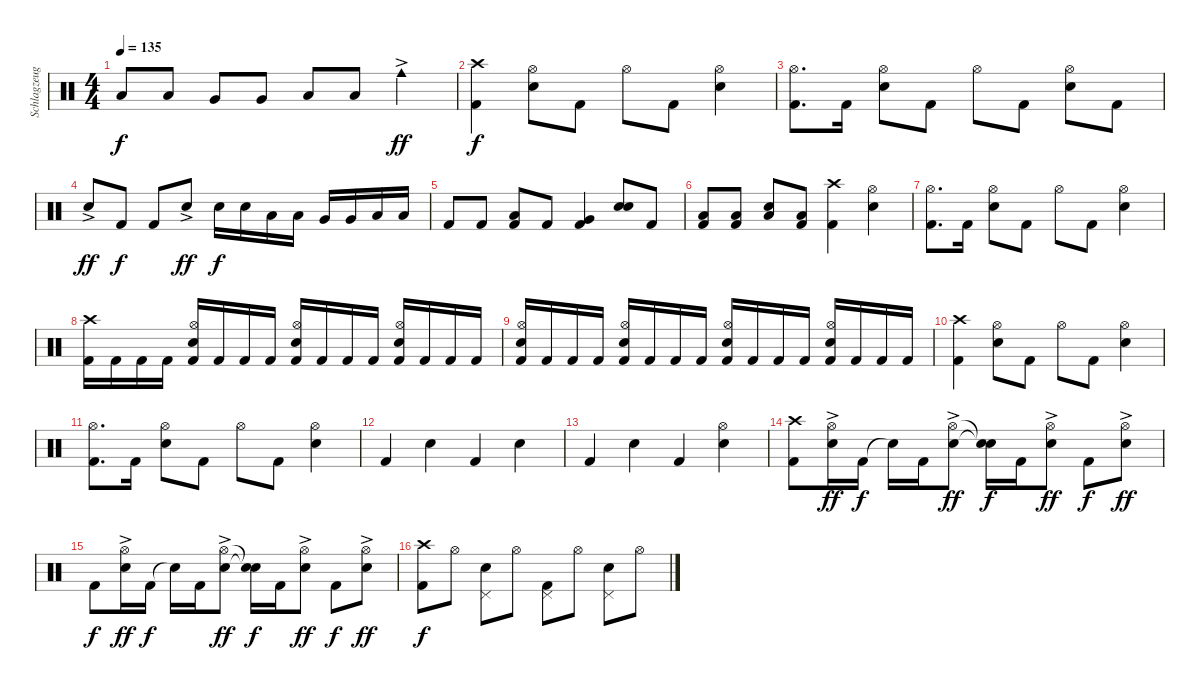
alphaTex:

\track ("Schlagzeug" "Schlagzeug") {instrument percussion}
\staff {score}
\articulation defaults
\ts (4 4)
\tempo 135
\clef neutral
\ks c "Low Tom (hit)".8{dy f} "Low Tom (hit)".8 "Very Low Tom (hit)".8 "Very Low Tom (hit)".8 "Low Floor Tom (hit)".8 "Low Floor Tom (hit)".8 "Cowbell medium (hit)"{ac}.4{dy ff}
|
("Crash high (hit)" "Kick (hit) 2").4{dy f} ("Hi-Hat (open)" "Electric Snare (hit)").8 "Kick (hit) 2".8 "Hi-Hat (open)".8 "Kick (hit) 2".8 ("Hi-Hat (open)" "Electric Snare (hit)").4 |
("Hi-Hat (open)" "Kick (hit) 2").8{d} "Kick (hit) 2".16 ("Hi-Hat (open)" "Electric Snare (hit)").8 "Kick (hit) 2".8 "Hi-Hat (open)".8 "Kick (hit) 2".8 ("Hi-Hat (open)" "Electric Snare (hit)").8 "Kick (hit) 2".8 |
"Electric Snare (hit)"{ac}.8{dy ff} "Kick (hit) 2".8{dy f} "Kick (hit) 2".8 "Electric Snare (hit)"{ac}.8{dy ff} "Electric Snare (hit)".16{dy f} "Electric Snare (hit)".16 "Low Tom (hit)".16 "Low Tom (hit)".16 "Very Low Tom (hit)".16 "Very Low Tom (hit)".16 "Low Floor Tom (hit)".16 "Low Floor Tom (hit)".16 |
"Kick (hit) 2".8 "Kick (hit) 2".8 ("Low Floor Tom (hit)" "Kick (hit) 2").8 "Kick (hit) 2".8 ("Very Low Tom (hit)" "Kick (hit) 2").4 ("Electric Snare (hit)" "Electric Snare (hit)").8 "Kick (hit) 2".8 |
("Low Floor Tom (hit)" "Kick (hit) 2").8 ("Low Floor Tom (hit)" "Kick (hit) 2").8 ("Low Floor Tom (hit)" "Electric Snare (hit)").8 ("Low Floor Tom (hit)" "Kick (hit) 2").8 ("Crash high (hit)" "Kick (hit) 2").4 ("Hi-Hat (open)" "Electric Snare (hit)").4 |
("Hi-Hat (open)" "Kick (hit) 2").8{d} "Kick (hit) 2".16 ("Hi-Hat (open)" "Electric Snare (hit)").8 "Kick (hit) 2".8 "Hi-Hat (open)".8 "Kick (hit) 2".8 ("Hi-Hat (open)" "Electric Snare (hit)").4 |
("Crash high (hit)" "Kick (hit) 2").16 "Kick (hit) 2".16 "Kick (hit) 2".16 "Kick (hit) 2".16 ("Hi-Hat (open)" "Electric Snare (hit)" "Kick (hit) 2").16 "Kick (hit) 2".16 "Kick (hit) 2".16 "Kick (hit) 2".16 ("Hi-Hat (open)" "Electric Snare (hit)" "Kick (hit) 2").16 "Kick (hit) 2".16 "Kick (hit) 2".16 "Kick (hit) 2".16 ("Hi-Hat (open)" "Electric Snare (hit)" "Kick (hit) 2").16 "Kick (hit) 2".16 "Kick (hit) 2".16 "Kick (hit) 2".16 |
("Hi-Hat (open)" "Electric Snare (hit)" "Kick (hit) 2").16 "Kick (hit) 2".16 "Kick (hit) 2".16 "Kick (hit) 2".16 ("Hi-Hat (open)" "Electric Snare (hit)" "Kick (hit) 2").16 "Kick (hit) 2".16 "Kick (hit) 2".16 "Kick (hit) 2".16 ("Hi-Hat (open)" "Electric Snare (hit)" "Kick (hit) 2").16 "Kick (hit) 2".16 "Kick (hit) 2".16 "Kick (hit) 2".16 ("Hi-Hat (open)" "Electric Snare (hit)" "Kick (hit) 2").16 "Kick (hit) 2".16 "Kick (hit) 2".16 "Kick (hit) 2".16 |
("Crash high (hit)" "Kick (hit) 2").4 ("Hi-Hat (open)" "Electric Snare (hit)").8 "Kick (hit) 2".8 "Hi-Hat (open)".8 "Kick (hit) 2".8 ("Hi-Hat (open)" "Electric Snare (hit)").4 |
("Hi-Hat (open)" "Kick (hit) 2").8{d} "Kick (hit) 2".16 ("Hi-Hat (open)" "Electric Snare (hit)").8 "Kick (hit) 2".8 "Hi-Hat (open)".8 "Kick (hit) 2".8 ("Hi-Hat (open)" "Electric Snare (hit)").4 |
"Kick (hit) 2".4 "Electric Snare (hit)".4 "Kick (hit) 2".4 "Electric Snare (hit)".4 |
"Kick (hit) 2".4 "Electric Snare (hit)".4 "Kick (hit) 2".4 ("Hi-Hat (open)" "Electric Snare (hit)").4 |
("Crash high (hit)" "Kick (hit) 2").8 ("Hi-Hat (open)" "Electric Snare (hit)"{ac}).16{dy ff} "Kick (hit) 2".16{dy f} "Snare (hit)"{t}.16 "Kick (hit) 2".16 ("Hi-Hat (open)" "Electric Snare (hit)"{ac}).8{dy ff} ("Snare (hit)"{t} "Snare (hit)"{t}).16{dy f} "Kick (hit) 2".16 ("Hi-Hat (open)" "Electric Snare (hit)"{ac}).8{dy ff} "Kick (hit) 2".8{dy f} ("Hi-Hat (open)" "Electric Snare (hit)"{ac}).8{dy ff} |
"Kick (hit) 2".8{dy f} ("Hi-Hat (open)" "Electric Snare (hit)"{ac}).16{dy ff} "Kick (hit) 2".16{dy f} "Snare (hit)"{t}.16 "Kick (hit) 2".16 ("Hi-Hat (open)" "Electric Snare (hit)"{ac}).8{dy ff} ("Snare (hit)"{t} "Snare (hit)"{t}).16{dy f} "Kick (hit) 2".16 ("Hi-Hat (open)" "Electric Snare (hit)"{ac}).8{dy ff} "Kick (hit) 2".8{dy f} ("Hi-Hat (open)" "Electric Snare (hit)"{ac}).8{dy ff} |
("Crash high (hit)" "Kick (hit) 2").8{dy f} "Hi-Hat (open)".8 ("Electric Snare (hit)" "Pedal Hi-Hat (hit)").8 "Hi-Hat (open)".8 ("Kick (hit) 2" "Pedal Hi-Hat (hit)").8 "Hi-Hat (open)".8 ("Pedal Hi-Hat (hit)" "Electric Snare (hit)").8 "Hi-Hat (open)".8
